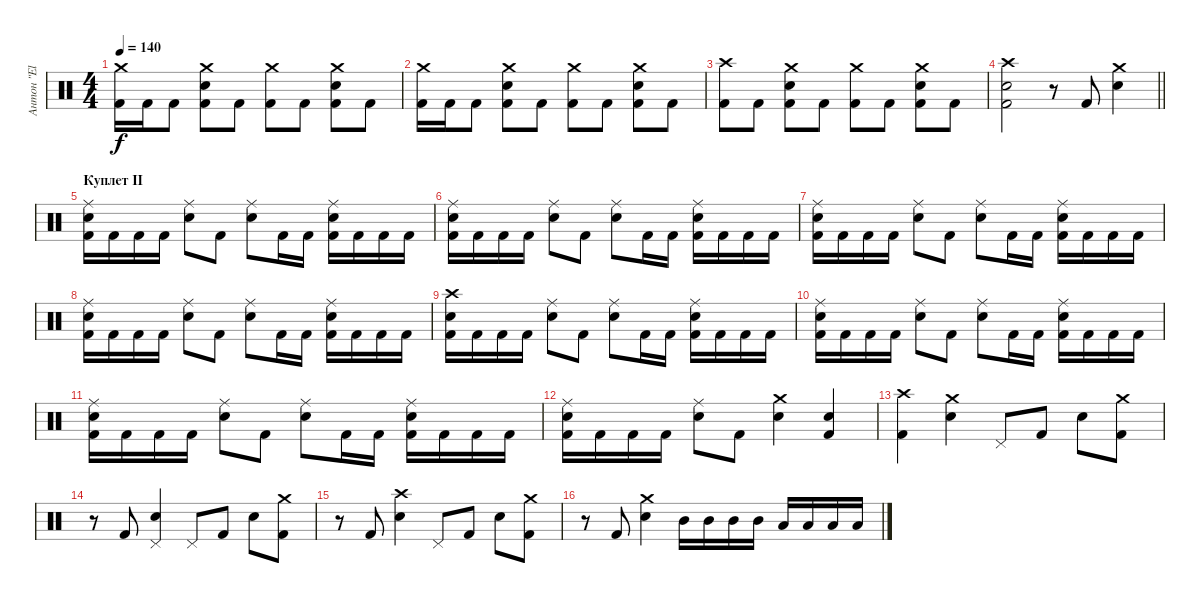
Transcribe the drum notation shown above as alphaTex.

\track ("Антон \"El Bastardo\" Смольянин" "Антон \"El ") {instrument percussion}
\staff {score}
\articulation defaults
\ts (4 4)
\tempo 140
\clef neutral
\ks c
("Crash medium (hit)" "Kick (hit) 2").16{dy f} "Kick (hit) 2".16 "Kick (hit) 2".8 ("Crash medium (hit)" "Electric Snare (hit)" "Kick (hit) 2").8 "Kick (hit) 2".8 ("Crash medium (hit)" "Kick (hit) 2").8 "Kick (hit) 2".8 ("Crash medium (hit)" "Electric Snare (hit)" "Kick (hit) 2").8 "Kick (hit) 2".8 |
("Crash medium (hit)" "Kick (hit) 2").16 "Kick (hit) 2".16 "Kick (hit) 2".8 ("Crash medium (hit)" "Electric Snare (hit)" "Kick (hit) 2").8 "Kick (hit) 2".8 ("Crash medium (hit)" "Kick (hit) 2").8 "Kick (hit) 2".8 ("Crash medium (hit)" "Electric Snare (hit)" "Kick (hit) 2").8 "Kick (hit) 2".8 |
("Crash high (hit)" "Kick (hit) 2").8 "Kick (hit) 2".8 ("Crash medium (hit)" "Electric Snare (hit)" "Kick (hit) 2").8 "Kick (hit) 2".8 ("Crash medium (hit)" "Kick (hit) 2").8 "Kick (hit) 2".8 ("Crash medium (hit)" "Electric Snare (hit)" "Kick (hit) 2").8 "Kick (hit) 2".8 |
\barLineRight lightlight
("Crash high (hit)" "Electric Snare (hit)" "Kick (hit) 2").2 r.8 "Kick (hit) 2".8 ("Crash medium (hit)" "Electric Snare (hit)").4 |
\section ("" "Куплет II")
("Ride (middle)" "Electric Snare (hit)" "Kick (hit) 2").16 "Kick (hit) 2".16 "Kick (hit) 2".16 "Kick (hit) 2".16 ("Ride (middle)" "Electric Snare (hit)").8 "Kick (hit) 2".8 ("Ride (middle)" "Electric Snare (hit)").8 "Kick (hit) 2".16 "Kick (hit) 2".16 ("Ride (middle)" "Electric Snare (hit)" "Kick (hit) 2").16 "Kick (hit) 2".16 "Kick (hit) 2".16 "Kick (hit) 2".16 |
("Ride (middle)" "Electric Snare (hit)" "Kick (hit) 2").16 "Kick (hit) 2".16 "Kick (hit) 2".16 "Kick (hit) 2".16 ("Ride (middle)" "Electric Snare (hit)").8 "Kick (hit) 2".8 ("Ride (middle)" "Electric Snare (hit)").8 "Kick (hit) 2".16 "Kick (hit) 2".16 ("Ride (middle)" "Electric Snare (hit)" "Kick (hit) 2").16 "Kick (hit) 2".16 "Kick (hit) 2".16 "Kick (hit) 2".16 |
("Ride (middle)" "Electric Snare (hit)" "Kick (hit) 2").16 "Kick (hit) 2".16 "Kick (hit) 2".16 "Kick (hit) 2".16 ("Ride (middle)" "Electric Snare (hit)").8 "Kick (hit) 2".8 ("Ride (middle)" "Electric Snare (hit)").8 "Kick (hit) 2".16 "Kick (hit) 2".16 ("Ride (middle)" "Electric Snare (hit)" "Kick (hit) 2").16 "Kick (hit) 2".16 "Kick (hit) 2".16 "Kick (hit) 2".16 |
("Ride (middle)" "Electric Snare (hit)" "Kick (hit) 2").16 "Kick (hit) 2".16 "Kick (hit) 2".16 "Kick (hit) 2".16 ("Ride (middle)" "Electric Snare (hit)").8 "Kick (hit) 2".8 ("Ride (middle)" "Electric Snare (hit)").8 "Kick (hit) 2".16 "Kick (hit) 2".16 ("Ride (middle)" "Electric Snare (hit)" "Kick (hit) 2").16 "Kick (hit) 2".16 "Kick (hit) 2".16 "Kick (hit) 2".16 |
("Crash high (hit)" "Electric Snare (hit)" "Kick (hit) 2").16 "Kick (hit) 2".16 "Kick (hit) 2".16 "Kick (hit) 2".16 ("Ride (middle)" "Electric Snare (hit)").8 "Kick (hit) 2".8 ("Ride (middle)" "Electric Snare (hit)").8 "Kick (hit) 2".16 "Kick (hit) 2".16 ("Ride (middle)" "Electric Snare (hit)" "Kick (hit) 2").16 "Kick (hit) 2".16 "Kick (hit) 2".16 "Kick (hit) 2".16 |
("Ride (middle)" "Electric Snare (hit)" "Kick (hit) 2").16 "Kick (hit) 2".16 "Kick (hit) 2".16 "Kick (hit) 2".16 ("Ride (middle)" "Electric Snare (hit)").8 "Kick (hit) 2".8 ("Ride (middle)" "Electric Snare (hit)").8 "Kick (hit) 2".16 "Kick (hit) 2".16 ("Ride (middle)" "Electric Snare (hit)" "Kick (hit) 2").16 "Kick (hit) 2".16 "Kick (hit) 2".16 "Kick (hit) 2".16 |
("Ride (middle)" "Electric Snare (hit)" "Kick (hit) 2").16 "Kick (hit) 2".16 "Kick (hit) 2".16 "Kick (hit) 2".16 ("Ride (middle)" "Electric Snare (hit)").8 "Kick (hit) 2".8 ("Ride (middle)" "Electric Snare (hit)").8 "Kick (hit) 2".16 "Kick (hit) 2".16 ("Ride (middle)" "Electric Snare (hit)" "Kick (hit) 2").16 "Kick (hit) 2".16 "Kick (hit) 2".16 "Kick (hit) 2".16 |
("Ride (middle)" "Electric Snare (hit)" "Kick (hit) 2").16 "Kick (hit) 2".16 "Kick (hit) 2".16 "Kick (hit) 2".16 ("Ride (middle)" "Electric Snare (hit)").8 "Kick (hit) 2".8 ("Crash medium (hit)" "Electric Snare (hit)").4 ("Electric Snare (hit)" "Kick (hit) 2").4 |
("Crash high (hit)" "Kick (hit) 2").4 ("Crash medium (hit)" "Electric Snare (hit)").4 "Pedal Hi-Hat (hit)".8 "Kick (hit) 2".8 "Electric Snare (hit)".8 ("Crash medium (hit)" "Kick (hit) 2").8 |
r.8 "Kick (hit) 2".8 ("Pedal Hi-Hat (hit)" "Electric Snare (hit)").4 "Pedal Hi-Hat (hit)".8 "Kick (hit) 2".8 "Electric Snare (hit)".8 ("Crash medium (hit)" "Kick (hit) 2").8 |
r.8 "Kick (hit) 2".8 ("Crash high (hit)" "Electric Snare (hit)").4 "Pedal Hi-Hat (hit)".8 "Kick (hit) 2".8 "Electric Snare (hit)".8 ("Crash medium (hit)" "Kick (hit) 2").8 |
r.8 "Kick (hit) 2".8 ("Crash medium (hit)" "Electric Snare (hit)").4 "Mid Tom (hit)".16 "Mid Tom (hit)".16 "Mid Tom (hit)".16 "Mid Tom (hit)".16 "Low Tom (hit)".16 "Low Tom (hit)".16 "Low Tom (hit)".16 "Low Tom (hit)".16
